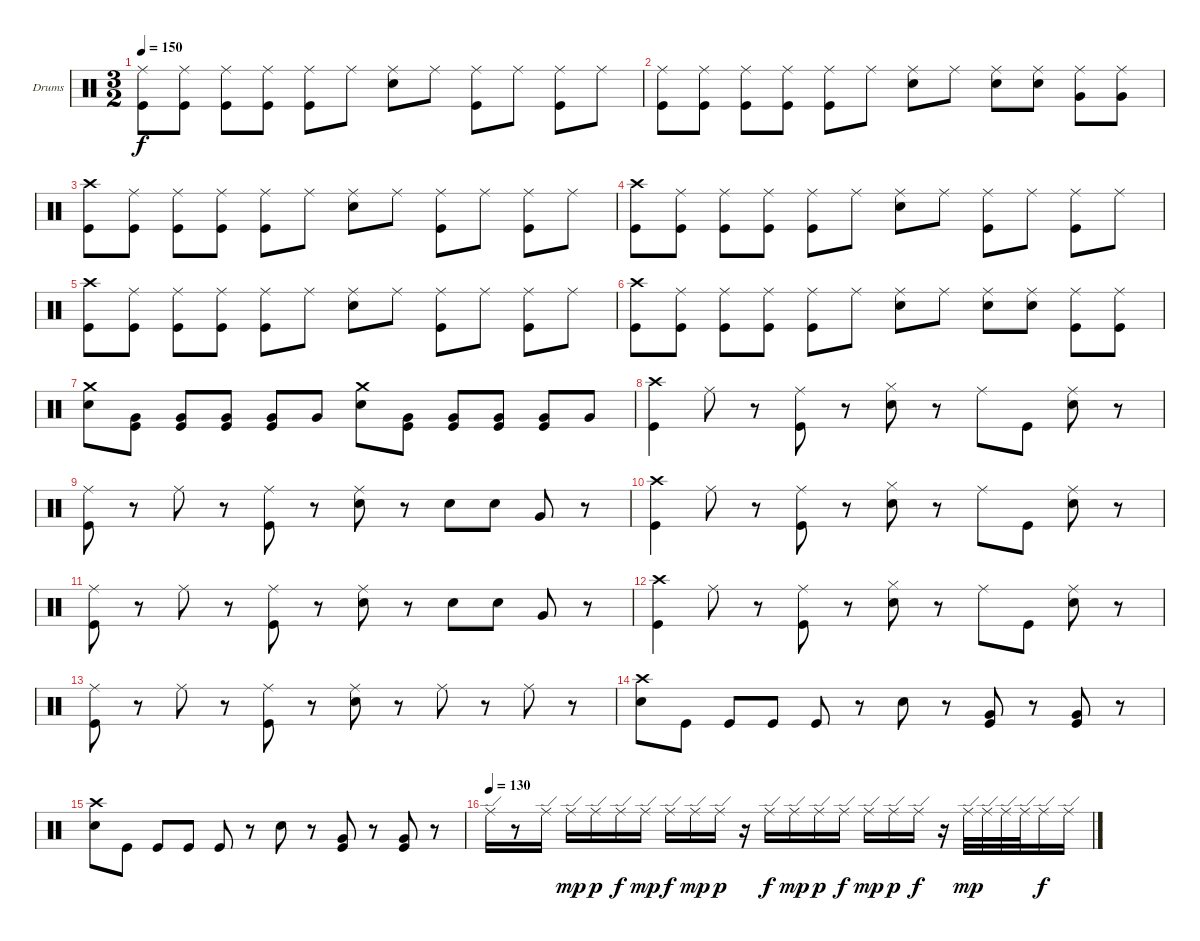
\bracketExtendMode groupsimilarinstruments
\firstSystemTrackNameOrientation horizontal
\otherSystemsTrackNameOrientation horizontal
\track ("Барабаны" "Drums") {instrument percussion}
\staff {score}
\articulation defaults
\ts (3 2)
\tempo 150
\clef neutral
\ks c
("Kick (hit)" "Ride (middle)").8{dy f} ("Ride (middle)" "Kick (hit)").8 ("Kick (hit)" "Ride (middle)").8 ("Kick (hit)" "Ride (middle)").8 ("Kick (hit)" "Ride (middle)").8 "Ride (middle)".8 ("Snare (hit) 2" "Ride (middle)").8 "Ride (middle)".8 ("Kick (hit)" "Ride (middle)").8 "Ride (middle)".8 ("Kick (hit)" "Ride (middle)").8 "Ride (middle)".8 |
("Kick (hit)" "Ride (middle)").8 ("Kick (hit)" "Ride (middle)").8 ("Ride (middle)" "Kick (hit)").8 ("Ride (middle)" "Kick (hit)").8 ("Kick (hit)" "Ride (middle)").8 "Ride (middle)".8 ("Ride (middle)" "Snare (hit) 2").8 "Ride (middle)".8 ("Snare (hit) 2" "Ride (middle)").8 ("Snare (hit) 2" "Ride (middle)").8 ("Very Low Tom (hit)" "Ride (middle)").8 ("Very Low Tom (hit)" "Ride (middle)").8 |
("Crash high (hit)" "Kick (hit)").8 ("Ride (middle)" "Kick (hit)").8 ("Ride (middle)" "Kick (hit)").8 ("Ride (middle)" "Kick (hit)").8 ("Kick (hit)" "Ride (middle)").8 "Ride (middle)".8 ("Snare (hit) 2" "Ride (middle)").8 "Ride (middle)".8 ("Kick (hit)" "Ride (middle)").8 "Ride (middle)".8 ("Kick (hit)" "Ride (middle)").8 "Ride (middle)".8 |
("Crash high (hit)" "Kick (hit)").8 ("Kick (hit)" "Ride (middle)").8 ("Kick (hit)" "Ride (middle)").8 ("Kick (hit)" "Ride (middle)").8 ("Ride (middle)" "Kick (hit)").8 "Ride (middle)".8 ("Ride (middle)" "Snare (hit) 2").8 "Ride (middle)".8 ("Ride (middle)" "Kick (hit)").8 "Ride (middle)".8 ("Ride (middle)" "Kick (hit)").8 "Ride (middle)".8 |
("Kick (hit)" "Crash high (hit)").8 ("Kick (hit)" "Ride (middle)").8 ("Kick (hit)" "Ride (middle)").8 ("Ride (middle)" "Kick (hit)").8 ("Ride (middle)" "Kick (hit)").8 "Ride (middle)".8 ("Snare (hit) 2" "Ride (middle)").8 "Ride (middle)".8 ("Kick (hit)" "Ride (middle)").8 "Ride (middle)".8 ("Kick (hit)" "Ride (middle)").8 "Ride (middle)".8 |
("Crash high (hit)" "Kick (hit)").8 ("Ride (middle)" "Kick (hit)").8 ("Kick (hit)" "Ride (middle)").8 ("Kick (hit)" "Ride (middle)").8 ("Ride (middle)" "Kick (hit)").8 "Ride (middle)".8 ("Snare (hit) 2" "Ride (middle)").8 "Ride (middle)".8 ("Snare (hit) 2" "Ride (middle)").8 ("Snare (hit) 2" "Ride (middle)").8 ("Ride (middle)" "Kick (hit)").8 ("Ride (middle)" "Kick (hit)").8 |
("Crash medium (hit)" "Snare (hit) 2").8 ("Very Low Tom (hit)" "Kick (hit)").8 ("Kick (hit)" "Very Low Tom (hit)").8 ("Very Low Tom (hit)" "Kick (hit)").8 ("Very Low Tom (hit)" "Kick (hit)").8 "Very Low Tom (hit)".8 ("Crash medium (hit)" "Snare (hit) 2").8 ("Very Low Tom (hit)" "Kick (hit)").8 ("Kick (hit)" "Very Low Tom (hit)").8 ("Kick (hit)" "Very Low Tom (hit)").8 ("Kick (hit)" "Very Low Tom (hit)").8 "Very Low Tom (hit)".8 |
("Crash high (hit)" "Kick (hit)").4 "Ride (middle)".8 r.8 ("Ride (middle)" "Kick (hit)").8 r.8 ("Snare (hit) 2" "Hi-Hat (closed)").8 r.8 "Ride (middle)".8 "Kick (hit)".8 ("Ride (middle)" "Snare (hit) 2").8 r.8 |
("Ride (middle)" "Kick (hit)").8 r.8 "Ride (middle)".8 r.8 ("Kick (hit)" "Ride (middle)").8 r.8 ("Snare (hit) 2" "Ride (middle)").8 r.8 "Snare (hit) 2".8 "Snare (hit) 2".8 "Very Low Tom (hit)".8 r.8 |
("Kick (hit)" "Crash high (hit)").4 "Ride (middle)".8 r.8 ("Kick (hit)" "Ride (middle)").8 r.8 ("Snare (hit) 2" "Hi-Hat (closed)").8 r.8 "Ride (middle)".8 "Kick (hit)".8 ("Snare (hit) 2" "Ride (middle)").8 r.8 |
("Kick (hit)" "Ride (middle)").8 r.8 "Ride (middle)".8 r.8 ("Ride (middle)" "Kick (hit)").8 r.8 ("Ride (middle)" "Snare (hit) 2").8 r.8 "Snare (hit) 2".8 "Snare (hit) 2".8 "Very Low Tom (hit)".8 r.8 |
("Kick (hit)" "Crash high (hit)").4 "Ride (middle)".8 r.8 ("Kick (hit)" "Ride (middle)").8 r.8 ("Hi-Hat (closed)" "Snare (hit) 2").8 r.8 "Ride (middle)".8 "Kick (hit)".8 ("Snare (hit) 2" "Ride (middle)").8 r.8 |
("Kick (hit)" "Ride (middle)").8 r.8 "Ride (middle)".8 r.8 ("Ride (middle)" "Kick (hit)").8 r.8 ("Snare (hit) 2" "Ride (middle)").8 r.8 "Ride (middle)".8 r.8 "Ride (middle)".8 r.8 |
("Snare (hit) 2" "Crash high (hit)").8 "Kick (hit)".8 "Kick (hit)".8 "Kick (hit)".8 "Kick (hit)".8 r.8 "Snare (hit) 2".8 r.8 ("Very Low Tom (hit)" "Kick (hit)").8 r.8 ("Very Low Tom (hit)" "Kick (hit)").8 r.8 |
("Snare (hit) 2" "Crash high (hit)").8 "Kick (hit)".8 "Kick (hit)".8 "Kick (hit)".8 "Kick (hit)".8 r.8 "Snare (hit) 2".8 r.8 ("Kick (hit)" "Very Low Tom (hit)").8 r.8 ("Kick (hit)" "Very Low Tom (hit)").8 r.8 |
\tempo (130)
"Ride (edge)".16 r.8 "Ride (edge)".16 "Ride (edge)".16{dy mp} "Ride (edge)".16{dy p} "Ride (edge)".16{dy f} "Ride (edge)".16{dy mp} "Ride (edge)".16{dy f} "Ride (edge)".16{dy mp} "Ride (edge)".16{dy p} r.16 "Ride (edge)".16{dy f} "Ride (edge)".16{dy mp} "Ride (edge)".16{dy p} "Ride (edge)".16{dy f} "Ride (edge)".16{dy mp} "Ride (edge)".16{dy p} "Ride (edge)".16{dy f} r.16 "Ride (edge)".32{dy mp} "Ride (edge)".32 "Ride (edge)".32 "Ride (edge)".32 "Ride (edge)".16{dy f} "Ride (edge)".16
